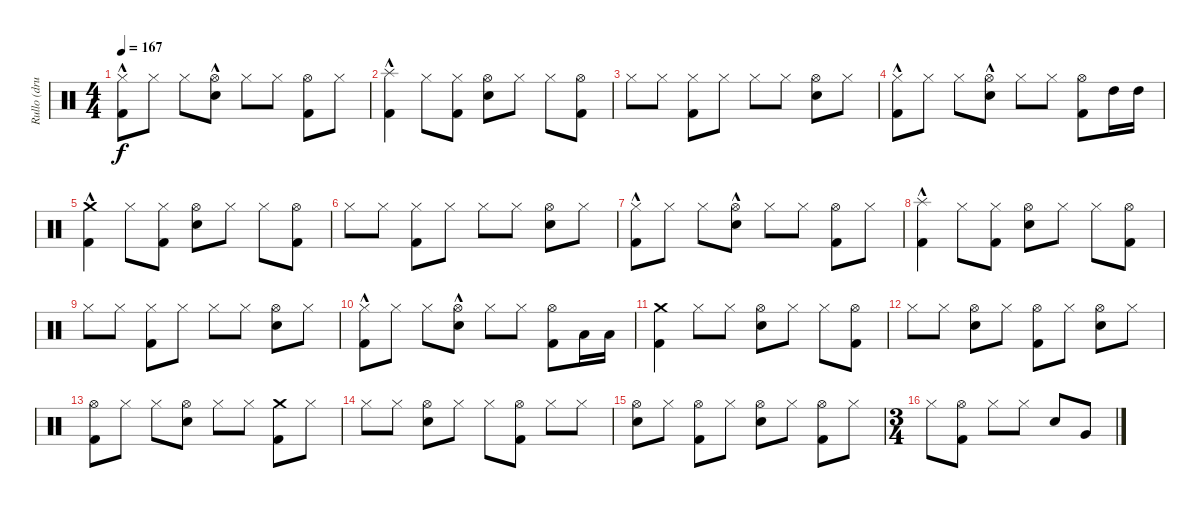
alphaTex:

\track ("Rullo (drums)" "Rullo (dru") {instrument percussion}
\staff {score}
\articulation defaults
\ts (4 4)
\tempo 167
\clef neutral
\ks c
("Hi-Hat (closed)" "Kick (hit) 2"{hac}).8{dy f} "Hi-Hat (closed)".8 "Hi-Hat (closed)".8 ("Hi-Hat (open)" "Electric Snare (hit)"{hac}).8 "Hi-Hat (closed)".8 "Hi-Hat (closed)".8 ("Hi-Hat (open)" "Kick (hit) 2").8 "Hi-Hat (closed)".8 |
("Splash (hit)" "Kick (hit) 2"{hac}).4 "Hi-Hat (closed)".8 ("Hi-Hat (closed)" "Kick (hit) 2").8 ("Hi-Hat (open)" "Electric Snare (hit)").8 "Hi-Hat (closed)".8 "Hi-Hat (closed)".8 ("Hi-Hat (open)" "Kick (hit) 2").8 |
"Hi-Hat (closed)".8 "Hi-Hat (closed)".8 ("Hi-Hat (closed)" "Kick (hit) 2").8 "Hi-Hat (closed)".8 "Hi-Hat (closed)".8 "Hi-Hat (closed)".8 ("Hi-Hat (open)" "Electric Snare (hit)").8 "Hi-Hat (closed)".8 |
("Hi-Hat (closed)" "Kick (hit) 2"{hac}).8 "Hi-Hat (closed)".8 "Hi-Hat (closed)".8 ("Hi-Hat (open)" "Electric Snare (hit)"{hac}).8 "Hi-Hat (closed)".8 "Hi-Hat (closed)".8 ("Hi-Hat (open)" "Kick (hit) 2").8 "High Tom (hit)".16 "High Tom (hit)".16 |
("Crash medium (hit)" "Kick (hit) 2"{hac}).4 "Hi-Hat (closed)".8 ("Hi-Hat (closed)" "Kick (hit) 2").8 ("Hi-Hat (open)" "Electric Snare (hit)").8 "Hi-Hat (closed)".8 "Hi-Hat (closed)".8 ("Hi-Hat (open)" "Kick (hit) 2").8 |
"Hi-Hat (closed)".8 "Hi-Hat (closed)".8 ("Hi-Hat (closed)" "Kick (hit) 2").8 "Hi-Hat (closed)".8 "Hi-Hat (closed)".8 "Hi-Hat (closed)".8 ("Hi-Hat (open)" "Electric Snare (hit)").8 "Hi-Hat (closed)".8 |
("Hi-Hat (closed)" "Kick (hit) 2"{hac}).8 "Hi-Hat (closed)".8 "Hi-Hat (closed)".8 ("Hi-Hat (open)" "Electric Snare (hit)"{hac}).8 "Hi-Hat (closed)".8 "Hi-Hat (closed)".8 ("Hi-Hat (open)" "Kick (hit) 2").8 "Hi-Hat (closed)".8 |
("Splash (hit)" "Kick (hit) 2"{hac}).4 "Hi-Hat (closed)".8 ("Hi-Hat (closed)" "Kick (hit) 2").8 ("Hi-Hat (open)" "Electric Snare (hit)").8 "Hi-Hat (closed)".8 "Hi-Hat (closed)".8 ("Hi-Hat (open)" "Kick (hit) 2").8 |
"Hi-Hat (closed)".8 "Hi-Hat (closed)".8 ("Hi-Hat (closed)" "Kick (hit) 2").8 "Hi-Hat (closed)".8 "Hi-Hat (closed)".8 "Hi-Hat (closed)".8 ("Hi-Hat (open)" "Electric Snare (hit)").8 "Hi-Hat (closed)".8 |
("Hi-Hat (closed)" "Kick (hit) 2"{hac}).8 "Hi-Hat (closed)".8 "Hi-Hat (closed)".8 ("Hi-Hat (open)" "Electric Snare (hit)"{hac}).8 "Hi-Hat (closed)".8 "Hi-Hat (closed)".8 ("Hi-Hat (open)" "Kick (hit) 2").8 "Low Tom (hit)".16 "Low Tom (hit)".16 |
("Crash medium (hit)" "Kick (hit) 2").4 "Hi-Hat (closed)".8 "Hi-Hat (closed)".8 ("Hi-Hat (open)" "Electric Snare (hit)").8 "Hi-Hat (closed)".8 "Hi-Hat (closed)".8 ("Hi-Hat (open)" "Kick (hit) 2").8 |
"Hi-Hat (closed)".8 "Hi-Hat (closed)".8 ("Hi-Hat (open)" "Electric Snare (hit)").8 "Hi-Hat (closed)".8 ("Hi-Hat (open)" "Kick (hit) 2").8 "Hi-Hat (closed)".8 ("Hi-Hat (open)" "Electric Snare (hit)").8 "Hi-Hat (closed)".8 |
("Hi-Hat (open)" "Kick (hit) 2").8 "Hi-Hat (closed)".8 "Hi-Hat (closed)".8 ("Hi-Hat (open)" "Electric Snare (hit)").8 "Hi-Hat (closed)".8 "Hi-Hat (closed)".8 ("Crash medium (hit)" "Kick (hit) 2").8 "Hi-Hat (closed)".8 |
"Hi-Hat (closed)".8 "Hi-Hat (closed)".8 ("Hi-Hat (open)" "Electric Snare (hit)").8 "Hi-Hat (closed)".8 "Hi-Hat (closed)".8 ("Hi-Hat (open)" "Kick (hit) 2").8 "Hi-Hat (closed)".8 "Hi-Hat (closed)".8 |
("Hi-Hat (open)" "Electric Snare (hit)").8 "Hi-Hat (closed)".8 ("Hi-Hat (open)" "Kick (hit) 2").8 "Hi-Hat (closed)".8 ("Hi-Hat (open)" "Electric Snare (hit)").8 "Hi-Hat (closed)".8 ("Hi-Hat (open)" "Kick (hit) 2").8 "Hi-Hat (closed)".8 |
\ts (3 4)
"Hi-Hat (closed)".8 ("Hi-Hat (open)" "Kick (hit) 2").8 "Hi-Hat (closed)".8 "Hi-Hat (closed)".8 "Electric Snare (hit)".8 "Very Low Tom (hit)".8
